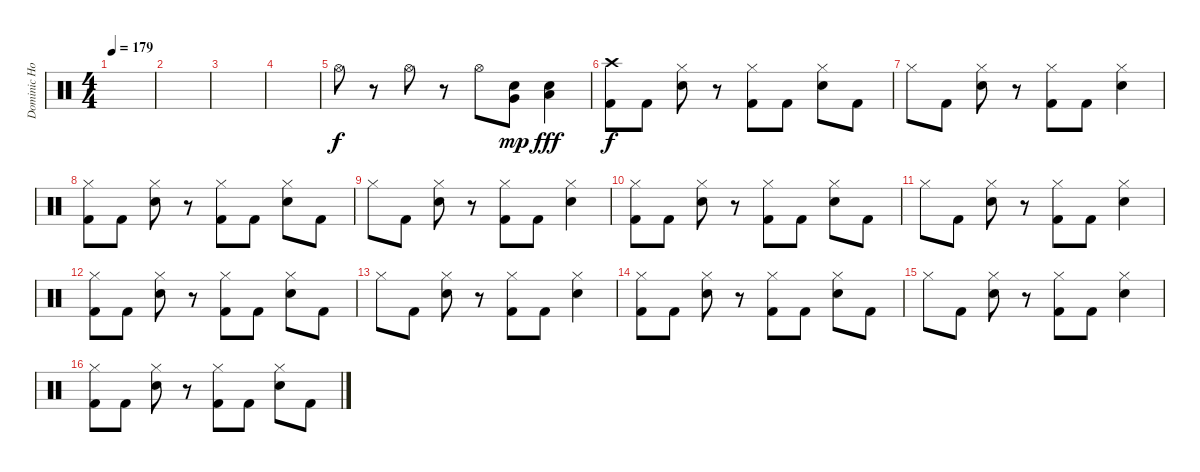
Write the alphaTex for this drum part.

\track ("Dominic Howard" "Dominic Ho") {instrument percussion}
\staff {score}
\articulation defaults
\ts (4 4)
\tempo 179
\clef neutral
\ks c
|
|
|
|
"Hi-Hat (open)".8 r.8 "Hi-Hat (open)".8 r.8 "Hi-Hat (open)".8 ("Electric Snare (hit)" "Very Low Tom (hit)").8{dy mp} ("Electric Snare (hit)" "Low Floor Tom (hit)").4{dy fff} |
("Crash high (hit)" "Kick (hit) 2").8{dy f} "Kick (hit) 2".8 ("Hi-Hat (closed)" "Electric Snare (hit)").8 r.8 ("Hi-Hat (closed)" "Kick (hit) 2").8 "Kick (hit) 2".8 ("Hi-Hat (closed)" "Electric Snare (hit)").8 "Kick (hit) 2".8 |
"Hi-Hat (closed)".8 "Kick (hit) 2".8 ("Hi-Hat (closed)" "Electric Snare (hit)").8 r.8 ("Hi-Hat (closed)" "Kick (hit) 2").8 "Kick (hit) 2".8 ("Hi-Hat (closed)" "Electric Snare (hit)").4 |
("Hi-Hat (closed)" "Kick (hit) 2").8 "Kick (hit) 2".8 ("Hi-Hat (closed)" "Electric Snare (hit)").8 r.8 ("Hi-Hat (closed)" "Kick (hit) 2").8 "Kick (hit) 2".8 ("Hi-Hat (closed)" "Electric Snare (hit)").8 "Kick (hit) 2".8 |
"Hi-Hat (closed)".8 "Kick (hit) 2".8 ("Hi-Hat (closed)" "Electric Snare (hit)").8 r.8 ("Hi-Hat (closed)" "Kick (hit) 2").8 "Kick (hit) 2".8 ("Hi-Hat (closed)" "Electric Snare (hit)").4 |
("Hi-Hat (closed)" "Kick (hit) 2").8 "Kick (hit) 2".8 ("Hi-Hat (closed)" "Electric Snare (hit)").8 r.8 ("Hi-Hat (closed)" "Kick (hit) 2").8 "Kick (hit) 2".8 ("Hi-Hat (closed)" "Electric Snare (hit)").8 "Kick (hit) 2".8 |
"Hi-Hat (closed)".8 "Kick (hit) 2".8 ("Hi-Hat (closed)" "Electric Snare (hit)").8 r.8 ("Hi-Hat (closed)" "Kick (hit) 2").8 "Kick (hit) 2".8 ("Hi-Hat (closed)" "Electric Snare (hit)").4 |
("Hi-Hat (closed)" "Kick (hit) 2").8 "Kick (hit) 2".8 ("Hi-Hat (closed)" "Electric Snare (hit)").8 r.8 ("Hi-Hat (closed)" "Kick (hit) 2").8 "Kick (hit) 2".8 ("Hi-Hat (closed)" "Electric Snare (hit)").8 "Kick (hit) 2".8 |
"Hi-Hat (closed)".8 "Kick (hit) 2".8 ("Hi-Hat (closed)" "Electric Snare (hit)").8 r.8 ("Hi-Hat (closed)" "Kick (hit) 2").8 "Kick (hit) 2".8 ("Hi-Hat (closed)" "Electric Snare (hit)").4 |
("Hi-Hat (closed)" "Kick (hit) 2").8 "Kick (hit) 2".8 ("Hi-Hat (closed)" "Electric Snare (hit)").8 r.8 ("Hi-Hat (closed)" "Kick (hit) 2").8 "Kick (hit) 2".8 ("Hi-Hat (closed)" "Electric Snare (hit)").8 "Kick (hit) 2".8 |
"Hi-Hat (closed)".8 "Kick (hit) 2".8 ("Hi-Hat (closed)" "Electric Snare (hit)").8 r.8 ("Hi-Hat (closed)" "Kick (hit) 2").8 "Kick (hit) 2".8 ("Hi-Hat (closed)" "Electric Snare (hit)").4 |
("Hi-Hat (closed)" "Kick (hit) 2").8 "Kick (hit) 2".8 ("Hi-Hat (closed)" "Electric Snare (hit)").8 r.8 ("Hi-Hat (closed)" "Kick (hit) 2").8 "Kick (hit) 2".8 ("Hi-Hat (closed)" "Electric Snare (hit)").8 "Kick (hit) 2".8
